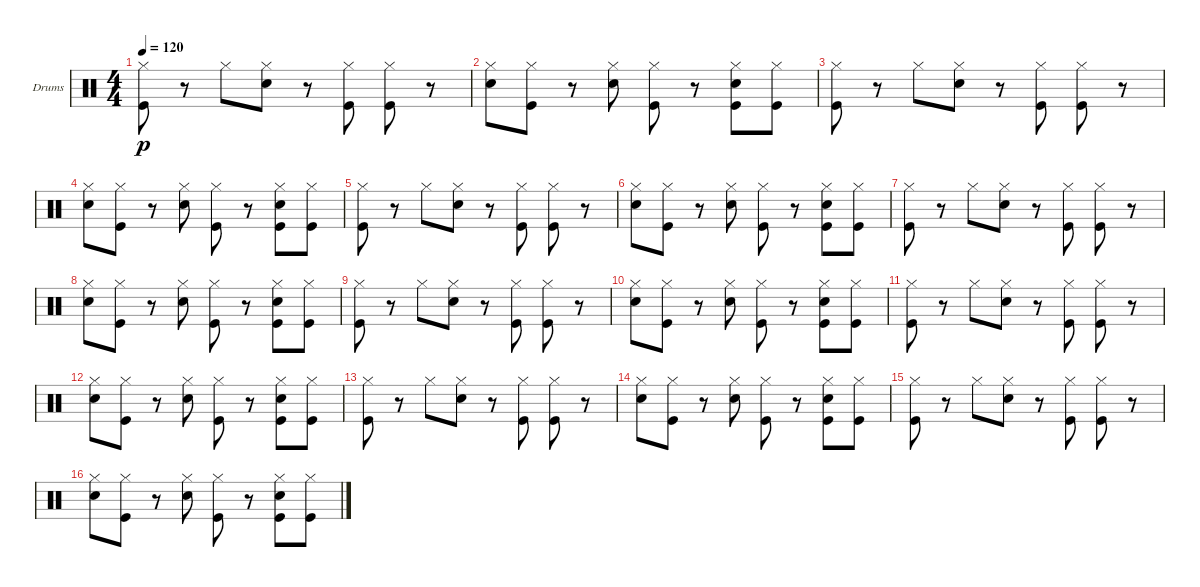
\defaultSystemsLayout 4
\bracketExtendMode groupsimilarinstruments
\firstSystemTrackNameOrientation horizontal
\otherSystemsTrackNameOrientation horizontal
\track ("Drumkit" "Drums") {instrument percussion}
\staff {score}
\articulation defaults
\ts (4 4)
\tempo 120
\clef neutral
\ks c
("Hi-Hat (closed)" "Kick (hit)").8{dy p} r.8 "Hi-Hat (closed)".8 ("Hi-Hat (closed)" "Snare (hit) 2").8 r.8 ("Hi-Hat (closed)" "Kick (hit)").8 ("Hi-Hat (closed)" "Kick (hit)").8 r.8 |
("Hi-Hat (closed)" "Snare (hit) 2").8 ("Hi-Hat (closed)" "Kick (hit)").8 r.8 ("Hi-Hat (closed)" "Snare (hit) 2").8 ("Hi-Hat (closed)" "Kick (hit)").8 r.8 ("Hi-Hat (closed)" "Snare (hit) 2" "Kick (hit)").8 ("Hi-Hat (closed)" "Kick (hit)").8 |
("Hi-Hat (closed)" "Kick (hit)").8 r.8 "Hi-Hat (closed)".8 ("Hi-Hat (closed)" "Snare (hit) 2").8 r.8 ("Hi-Hat (closed)" "Kick (hit)").8 ("Hi-Hat (closed)" "Kick (hit)").8 r.8 |
("Hi-Hat (closed)" "Snare (hit) 2").8 ("Hi-Hat (closed)" "Kick (hit)").8 r.8 ("Hi-Hat (closed)" "Snare (hit) 2").8 ("Hi-Hat (closed)" "Kick (hit)").8 r.8 ("Hi-Hat (closed)" "Snare (hit) 2" "Kick (hit)").8 ("Hi-Hat (closed)" "Kick (hit)").8 |
("Hi-Hat (closed)" "Kick (hit)").8 r.8 "Hi-Hat (closed)".8 ("Hi-Hat (closed)" "Snare (hit) 2").8 r.8 ("Hi-Hat (closed)" "Kick (hit)").8 ("Hi-Hat (closed)" "Kick (hit)").8 r.8 |
("Hi-Hat (closed)" "Snare (hit) 2").8 ("Hi-Hat (closed)" "Kick (hit)").8 r.8 ("Hi-Hat (closed)" "Snare (hit) 2").8 ("Hi-Hat (closed)" "Kick (hit)").8 r.8 ("Hi-Hat (closed)" "Snare (hit) 2" "Kick (hit)").8 ("Hi-Hat (closed)" "Kick (hit)").8 |
("Hi-Hat (closed)" "Kick (hit)").8 r.8 "Hi-Hat (closed)".8 ("Hi-Hat (closed)" "Snare (hit) 2").8 r.8 ("Hi-Hat (closed)" "Kick (hit)").8 ("Hi-Hat (closed)" "Kick (hit)").8 r.8 |
("Hi-Hat (closed)" "Snare (hit) 2").8 ("Hi-Hat (closed)" "Kick (hit)").8 r.8 ("Hi-Hat (closed)" "Snare (hit) 2").8 ("Hi-Hat (closed)" "Kick (hit)").8 r.8 ("Hi-Hat (closed)" "Snare (hit) 2" "Kick (hit)").8 ("Hi-Hat (closed)" "Kick (hit)").8 |
("Hi-Hat (closed)" "Kick (hit)").8 r.8 "Hi-Hat (closed)".8 ("Hi-Hat (closed)" "Snare (hit) 2").8 r.8 ("Hi-Hat (closed)" "Kick (hit)").8 ("Hi-Hat (closed)" "Kick (hit)").8 r.8 |
("Hi-Hat (closed)" "Snare (hit) 2").8 ("Hi-Hat (closed)" "Kick (hit)").8 r.8 ("Hi-Hat (closed)" "Snare (hit) 2").8 ("Hi-Hat (closed)" "Kick (hit)").8 r.8 ("Hi-Hat (closed)" "Snare (hit) 2" "Kick (hit)").8 ("Hi-Hat (closed)" "Kick (hit)").8 |
("Hi-Hat (closed)" "Kick (hit)").8 r.8 "Hi-Hat (closed)".8 ("Hi-Hat (closed)" "Snare (hit) 2").8 r.8 ("Hi-Hat (closed)" "Kick (hit)").8 ("Hi-Hat (closed)" "Kick (hit)").8 r.8 |
("Hi-Hat (closed)" "Snare (hit) 2").8 ("Hi-Hat (closed)" "Kick (hit)").8 r.8 ("Hi-Hat (closed)" "Snare (hit) 2").8 ("Hi-Hat (closed)" "Kick (hit)").8 r.8 ("Hi-Hat (closed)" "Snare (hit) 2" "Kick (hit)").8 ("Hi-Hat (closed)" "Kick (hit)").8 |
("Hi-Hat (closed)" "Kick (hit)").8 r.8 "Hi-Hat (closed)".8 ("Hi-Hat (closed)" "Snare (hit) 2").8 r.8 ("Hi-Hat (closed)" "Kick (hit)").8 ("Hi-Hat (closed)" "Kick (hit)").8 r.8 |
("Hi-Hat (closed)" "Snare (hit) 2").8 ("Hi-Hat (closed)" "Kick (hit)").8 r.8 ("Hi-Hat (closed)" "Snare (hit) 2").8 ("Hi-Hat (closed)" "Kick (hit)").8 r.8 ("Hi-Hat (closed)" "Snare (hit) 2" "Kick (hit)").8 ("Hi-Hat (closed)" "Kick (hit)").8 |
("Hi-Hat (closed)" "Kick (hit)").8 r.8 "Hi-Hat (closed)".8 ("Hi-Hat (closed)" "Snare (hit) 2").8 r.8 ("Hi-Hat (closed)" "Kick (hit)").8 ("Hi-Hat (closed)" "Kick (hit)").8 r.8 |
("Hi-Hat (closed)" "Snare (hit) 2").8 ("Hi-Hat (closed)" "Kick (hit)").8 r.8 ("Hi-Hat (closed)" "Snare (hit) 2").8 ("Hi-Hat (closed)" "Kick (hit)").8 r.8 ("Hi-Hat (closed)" "Snare (hit) 2" "Kick (hit)").8 ("Hi-Hat (closed)" "Kick (hit)").8
